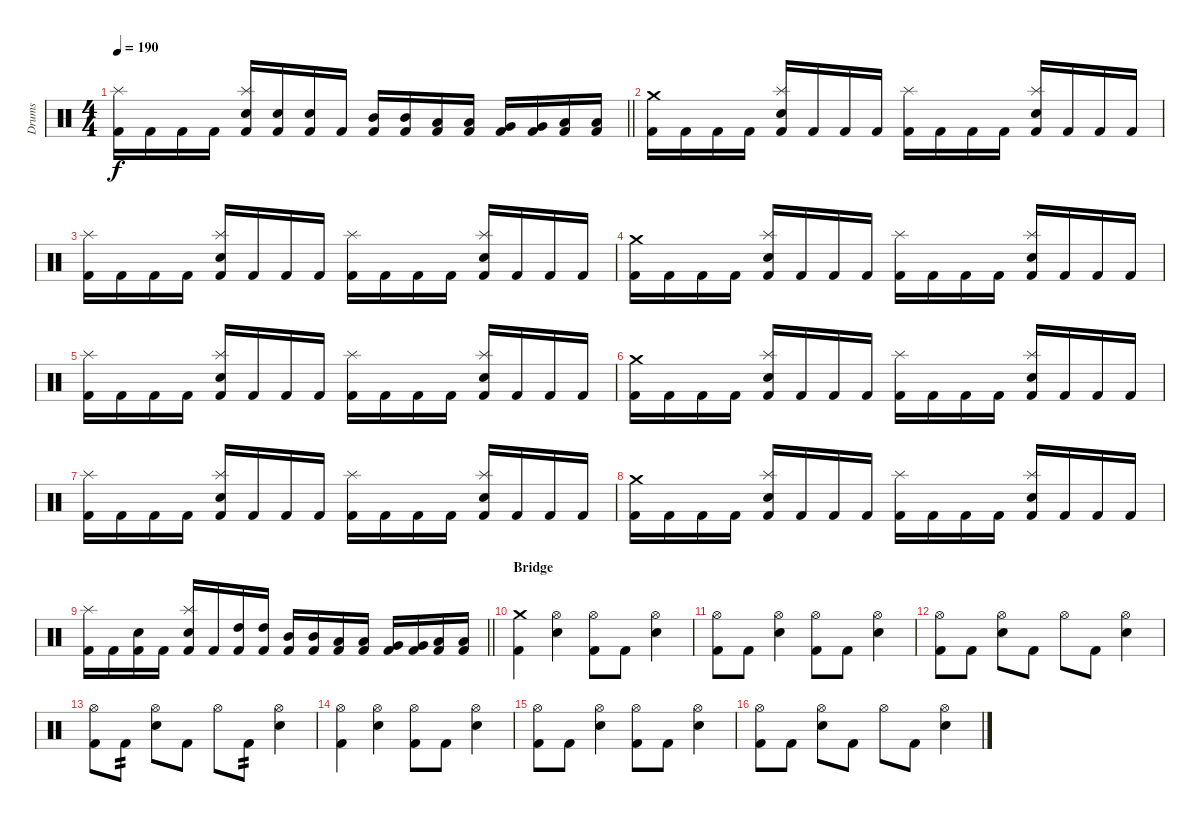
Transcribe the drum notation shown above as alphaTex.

\track ("Drums" "Drums") {instrument percussion}
\staff {score}
\articulation defaults
\ts (4 4)
\tempo 190
\clef neutral
\barLineRight lightlight
\ks c
("Kick (hit) 2" "Splash (hit)").16{dy f} "Kick (hit) 2".16 "Kick (hit) 2".16 "Kick (hit) 2".16 ("Kick (hit) 2" "Snare (hit) 2" "Splash (hit)").16 ("Kick (hit) 2" "Snare (hit) 2").16 ("Kick (hit) 2" "Snare (hit) 2").16 "Kick (hit) 2".16 ("Kick (hit) 2" "Mid Tom (hit)").16 ("Kick (hit) 2" "Mid Tom (hit)").16 ("Kick (hit) 2" "Low Tom (hit)").16 ("Kick (hit) 2" "Low Tom (hit)").16 ("Kick (hit) 2" "Very Low Tom (hit)").16 ("Kick (hit) 2" "Very Low Tom (hit)").16 ("Kick (hit) 2" "Low Floor Tom (hit)").16 ("Kick (hit) 2" "Low Floor Tom (hit)").16 |
\section ("" "")
("Kick (hit) 2" "Crash medium (hit)").16 "Kick (hit) 2".16 "Kick (hit) 2".16 "Kick (hit) 2".16 ("Kick (hit) 2" "Snare (hit) 2" "Splash (hit)").16 "Kick (hit) 2".16 "Kick (hit) 2".16 "Kick (hit) 2".16 ("Kick (hit) 2" "Splash (hit)").16 "Kick (hit) 2".16 "Kick (hit) 2".16 "Kick (hit) 2".16 ("Kick (hit) 2" "Snare (hit) 2" "Splash (hit)").16 "Kick (hit) 2".16 "Kick (hit) 2".16 "Kick (hit) 2".16 |
("Kick (hit) 2" "Splash (hit)").16 "Kick (hit) 2".16 "Kick (hit) 2".16 "Kick (hit) 2".16 ("Kick (hit) 2" "Snare (hit) 2" "Splash (hit)").16 "Kick (hit) 2".16 "Kick (hit) 2".16 "Kick (hit) 2".16 ("Kick (hit) 2" "Splash (hit)").16 "Kick (hit) 2".16 "Kick (hit) 2".16 "Kick (hit) 2".16 ("Kick (hit) 2" "Snare (hit) 2" "Splash (hit)").16 "Kick (hit) 2".16 "Kick (hit) 2".16 "Kick (hit) 2".16 |
("Kick (hit) 2" "Crash medium (hit)").16 "Kick (hit) 2".16 "Kick (hit) 2".16 "Kick (hit) 2".16 ("Kick (hit) 2" "Snare (hit) 2" "Splash (hit)").16 "Kick (hit) 2".16 "Kick (hit) 2".16 "Kick (hit) 2".16 ("Kick (hit) 2" "Splash (hit)").16 "Kick (hit) 2".16 "Kick (hit) 2".16 "Kick (hit) 2".16 ("Kick (hit) 2" "Snare (hit) 2" "Splash (hit)").16 "Kick (hit) 2".16 "Kick (hit) 2".16 "Kick (hit) 2".16 |
("Kick (hit) 2" "Splash (hit)").16 "Kick (hit) 2".16 "Kick (hit) 2".16 "Kick (hit) 2".16 ("Kick (hit) 2" "Snare (hit) 2" "Splash (hit)").16 "Kick (hit) 2".16 "Kick (hit) 2".16 "Kick (hit) 2".16 ("Kick (hit) 2" "Splash (hit)").16 "Kick (hit) 2".16 "Kick (hit) 2".16 "Kick (hit) 2".16 ("Kick (hit) 2" "Snare (hit) 2" "Splash (hit)").16 "Kick (hit) 2".16 "Kick (hit) 2".16 "Kick (hit) 2".16 |
("Kick (hit) 2" "Crash medium (hit)").16 "Kick (hit) 2".16 "Kick (hit) 2".16 "Kick (hit) 2".16 ("Kick (hit) 2" "Snare (hit) 2" "Splash (hit)").16 "Kick (hit) 2".16 "Kick (hit) 2".16 "Kick (hit) 2".16 ("Kick (hit) 2" "Splash (hit)").16 "Kick (hit) 2".16 "Kick (hit) 2".16 "Kick (hit) 2".16 ("Kick (hit) 2" "Snare (hit) 2" "Splash (hit)").16 "Kick (hit) 2".16 "Kick (hit) 2".16 "Kick (hit) 2".16 |
("Kick (hit) 2" "Splash (hit)").16 "Kick (hit) 2".16 "Kick (hit) 2".16 "Kick (hit) 2".16 ("Kick (hit) 2" "Snare (hit) 2" "Splash (hit)").16 "Kick (hit) 2".16 "Kick (hit) 2".16 "Kick (hit) 2".16 ("Kick (hit) 2" "Splash (hit)").16 "Kick (hit) 2".16 "Kick (hit) 2".16 "Kick (hit) 2".16 ("Kick (hit) 2" "Snare (hit) 2" "Splash (hit)").16 "Kick (hit) 2".16 "Kick (hit) 2".16 "Kick (hit) 2".16 |
("Kick (hit) 2" "Crash medium (hit)").16 "Kick (hit) 2".16 "Kick (hit) 2".16 "Kick (hit) 2".16 ("Kick (hit) 2" "Snare (hit) 2" "Splash (hit)").16 "Kick (hit) 2".16 "Kick (hit) 2".16 "Kick (hit) 2".16 ("Kick (hit) 2" "Splash (hit)").16 "Kick (hit) 2".16 "Kick (hit) 2".16 "Kick (hit) 2".16 ("Kick (hit) 2" "Snare (hit) 2" "Splash (hit)").16 "Kick (hit) 2".16 "Kick (hit) 2".16 "Kick (hit) 2".16 |
\barLineRight lightlight
("Kick (hit) 2" "Splash (hit)").16 "Kick (hit) 2".16 ("Kick (hit) 2" "Snare (hit) 2").16 "Kick (hit) 2".16 ("Kick (hit) 2" "Snare (hit) 2" "Splash (hit)").16 "Kick (hit) 2".16 ("Kick (hit) 2" "High Tom (hit)").16 ("Kick (hit) 2" "High Tom (hit)").16 ("Kick (hit) 2" "Mid Tom (hit)").16 ("Kick (hit) 2" "Mid Tom (hit)").16 ("Kick (hit) 2" "Low Tom (hit)").16 ("Kick (hit) 2" "Low Tom (hit)").16 ("Kick (hit) 2" "Very Low Tom (hit)").16 ("Kick (hit) 2" "Very Low Tom (hit)").16 ("Kick (hit) 2" "Low Floor Tom (hit)").16 ("Kick (hit) 2" "Low Floor Tom (hit)").16 |
\section ("" "Bridge")
("Kick (hit) 2" "Crash medium (hit)").4 ("Snare (hit) 2" "Hi-Hat (open)").4 ("Kick (hit) 2" "Hi-Hat (open)").8 "Kick (hit) 2".8 ("Snare (hit) 2" "Hi-Hat (open)").4 |
("Kick (hit) 2" "Hi-Hat (open)").8 "Kick (hit) 2".8 ("Snare (hit) 2" "Hi-Hat (open)").4 ("Kick (hit) 2" "Hi-Hat (open)").8 "Kick (hit) 2".8 ("Snare (hit) 2" "Hi-Hat (open)").4 |
("Kick (hit) 2" "Hi-Hat (open)").8 "Kick (hit) 2".8 ("Snare (hit) 2" "Hi-Hat (open)").8 "Kick (hit) 2".8 "Hi-Hat (open)".8 "Kick (hit) 2".8 ("Snare (hit) 2" "Hi-Hat (open)").4 |
("Kick (hit) 2" "Hi-Hat (open)").8 "Kick (hit) 2".8{tp 2} ("Snare (hit) 2" "Hi-Hat (open)").8 "Kick (hit) 2".8 "Hi-Hat (open)".8 "Kick (hit) 2".8{tp 2} ("Snare (hit) 2" "Hi-Hat (open)").4 |
("Kick (hit) 2" "Hi-Hat (open)").4 ("Snare (hit) 2" "Hi-Hat (open)").4 ("Kick (hit) 2" "Hi-Hat (open)").8 "Kick (hit) 2".8 ("Snare (hit) 2" "Hi-Hat (open)").4 |
("Kick (hit) 2" "Hi-Hat (open)").8 "Kick (hit) 2".8 ("Snare (hit) 2" "Hi-Hat (open)").4 ("Kick (hit) 2" "Hi-Hat (open)").8 "Kick (hit) 2".8 ("Snare (hit) 2" "Hi-Hat (open)").4 |
("Kick (hit) 2" "Hi-Hat (open)").8 "Kick (hit) 2".8 ("Snare (hit) 2" "Hi-Hat (open)").8 "Kick (hit) 2".8 "Hi-Hat (open)".8 "Kick (hit) 2".8 ("Snare (hit) 2" "Hi-Hat (open)").4
